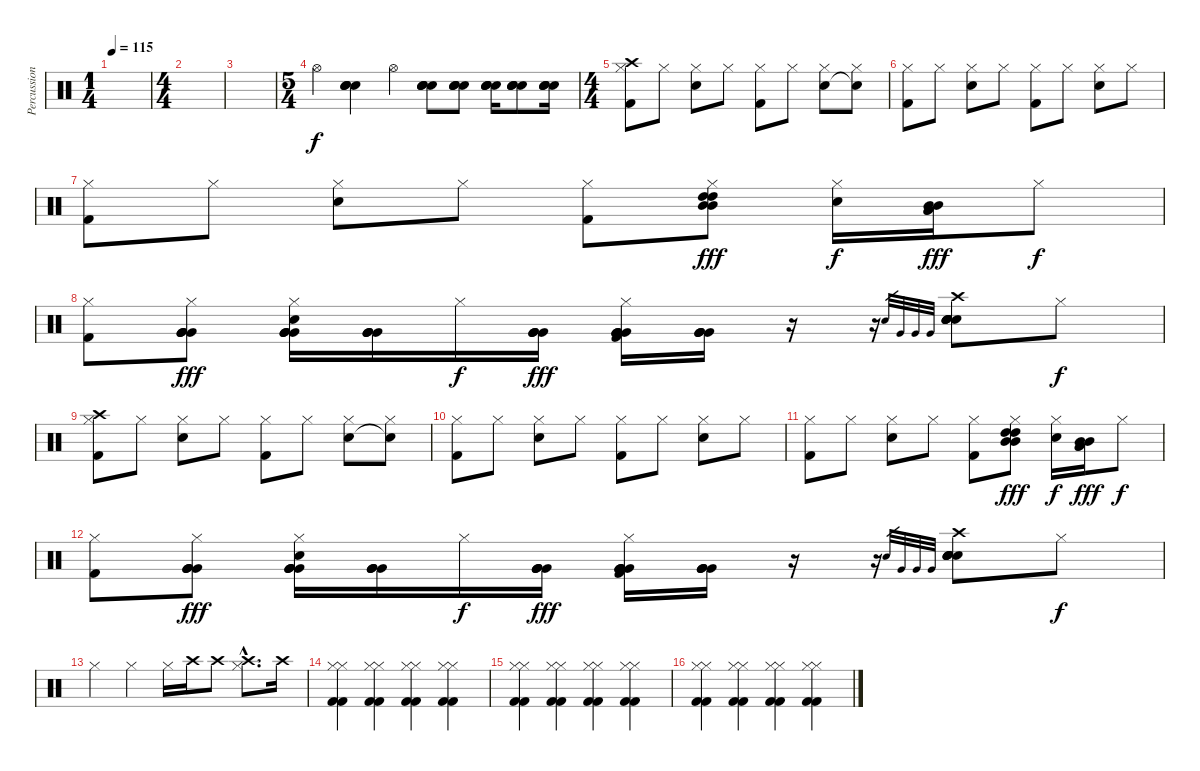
\track ("Percussion" "Percussion") {instrument percussion}
\staff {score}
\articulation defaults
\ts (1 4)
\tempo 115
\clef neutral
\ks c
|
\ts (4 4)
|
|
\ts (5 4)
"Hi-Hat (open)".4 ("Snare (hit) 2" "Snare (hit) 2" "Snare (hit) 2" "Snare (hit) 2").4 "Hi-Hat (open)".4 ("Snare (hit) 2" "Snare (hit) 2" "Snare (hit) 2" "Snare (hit) 2").8 ("Snare (hit) 2" "Snare (hit) 2" "Snare (hit) 2" "Snare (hit) 2").8 ("Snare (hit) 2" "Snare (hit) 2" "Snare (hit) 2" "Snare (hit) 2").16 ("Snare (hit) 2" "Snare (hit) 2" "Snare (hit) 2" "Snare (hit) 2").8 ("Snare (hit) 2" "Snare (hit) 2" "Snare (hit) 2" "Snare (hit) 2").16 |
\ts (4 4)
("Hi-Hat (closed)" "Kick (hit) 2" "Crash high (hit)").8 "Hi-Hat (closed)".8 ("Hi-Hat (closed)" "Electric Snare (hit)").8 "Hi-Hat (closed)".8 ("Hi-Hat (closed)" "Kick (hit) 2").8 "Hi-Hat (closed)".8 ("Hi-Hat (closed)" "Electric Snare (hit)").8 ("Hi-Hat (closed)" "Snare (hit)"{t}).8 |
("Hi-Hat (closed)" "Kick (hit) 2").8 "Hi-Hat (closed)".8 ("Hi-Hat (closed)" "Electric Snare (hit)").8 "Hi-Hat (closed)".8 ("Hi-Hat (closed)" "Kick (hit) 2").8 "Hi-Hat (closed)".8 ("Hi-Hat (closed)" "Electric Snare (hit)").8 "Hi-Hat (closed)".8 |
("Hi-Hat (closed)" "Kick (hit) 2").8 "Hi-Hat (closed)".8 ("Hi-Hat (closed)" "Electric Snare (hit)").8 "Hi-Hat (closed)".8 ("Hi-Hat (closed)" "Kick (hit) 2").8 ("Hi-Hat (closed)" "High Tom (hit)" "High Tom (hit)" "Mid Tom (hit)" "Mid Tom (hit)").8{dy fff} ("Hi-Hat (closed)" "Electric Snare (hit)").16{dy f} ("Mid Tom (hit)" "Mid Tom (hit)" "Low Tom (hit)" "Low Tom (hit)").16{dy fff} "Hi-Hat (closed)".8{dy f} |
("Hi-Hat (closed)" "Kick (hit) 2").8 ("Hi-Hat (closed)" "Very Low Tom (hit)" "Very Low Tom (hit)" "Very Low Tom (hit)" "Very Low Tom (hit)").8{dy fff} ("Hi-Hat (closed)" "Electric Snare (hit)" "Very Low Tom (hit)" "Very Low Tom (hit)" "Very Low Tom (hit)" "Very Low Tom (hit)").16 ("Very Low Tom (hit)" "Very Low Tom (hit)" "Very Low Tom (hit)" "Very Low Tom (hit)").16 "Hi-Hat (closed)".16{dy f} ("Very Low Tom (hit)" "Very Low Tom (hit)" "Very Low Tom (hit)" "Very Low Tom (hit)").16{dy fff} ("Hi-Hat (closed)" "Kick (hit) 2" "Very Low Tom (hit)" "Very Low Tom (hit)" "Very Low Tom (hit)" "Very Low Tom (hit)").16 ("Very Low Tom (hit)" "Very Low Tom (hit)" "Very Low Tom (hit)" "Very Low Tom (hit)").16 r.16 r.16 "Snare (hit)".32{gr} "Very Low Tom (hit)".32{gr} "Very Low Tom (hit)".32{gr} "Very Low Tom (hit)".32{gr} ("Crash high (hit)" "Electric Snare (hit)" "Electric Snare (hit)" "Electric Snare (hit)" "Electric Snare (hit)" "Electric Snare (hit)").8 "Hi-Hat (closed)".8{dy f} |
("Hi-Hat (closed)" "Kick (hit) 2" "Crash high (hit)").8 "Hi-Hat (closed)".8 ("Hi-Hat (closed)" "Electric Snare (hit)").8 "Hi-Hat (closed)".8 ("Hi-Hat (closed)" "Kick (hit) 2").8 "Hi-Hat (closed)".8 ("Hi-Hat (closed)" "Electric Snare (hit)").8 ("Hi-Hat (closed)" "Snare (hit)"{t}).8 |
("Hi-Hat (closed)" "Kick (hit) 2").8 "Hi-Hat (closed)".8 ("Hi-Hat (closed)" "Electric Snare (hit)").8 "Hi-Hat (closed)".8 ("Hi-Hat (closed)" "Kick (hit) 2").8 "Hi-Hat (closed)".8 ("Hi-Hat (closed)" "Electric Snare (hit)").8 "Hi-Hat (closed)".8 |
("Hi-Hat (closed)" "Kick (hit) 2").8 "Hi-Hat (closed)".8 ("Hi-Hat (closed)" "Electric Snare (hit)").8 "Hi-Hat (closed)".8 ("Hi-Hat (closed)" "Kick (hit) 2").8 ("Hi-Hat (closed)" "High Tom (hit)" "High Tom (hit)" "Mid Tom (hit)" "Mid Tom (hit)").8{dy fff} ("Hi-Hat (closed)" "Electric Snare (hit)").16{dy f} ("Mid Tom (hit)" "Mid Tom (hit)" "Low Tom (hit)" "Low Tom (hit)").16{dy fff} "Hi-Hat (closed)".8{dy f} |
("Hi-Hat (closed)" "Kick (hit) 2").8 ("Hi-Hat (closed)" "Very Low Tom (hit)" "Very Low Tom (hit)" "Very Low Tom (hit)" "Very Low Tom (hit)").8{dy fff} ("Hi-Hat (closed)" "Electric Snare (hit)" "Very Low Tom (hit)" "Very Low Tom (hit)" "Very Low Tom (hit)" "Very Low Tom (hit)").16 ("Very Low Tom (hit)" "Very Low Tom (hit)" "Very Low Tom (hit)" "Very Low Tom (hit)").16 "Hi-Hat (closed)".16{dy f} ("Very Low Tom (hit)" "Very Low Tom (hit)" "Very Low Tom (hit)" "Very Low Tom (hit)").16{dy fff} ("Hi-Hat (closed)" "Kick (hit) 2" "Very Low Tom (hit)" "Very Low Tom (hit)" "Very Low Tom (hit)" "Very Low Tom (hit)").16 ("Very Low Tom (hit)" "Very Low Tom (hit)" "Very Low Tom (hit)" "Very Low Tom (hit)").16 r.16 r.16 "Snare (hit)".32{gr} "Very Low Tom (hit)".32{gr} "Very Low Tom (hit)".32{gr} "Very Low Tom (hit)".32{gr} ("Crash high (hit)" "Electric Snare (hit)" "Electric Snare (hit)" "Electric Snare (hit)" "Electric Snare (hit)" "Electric Snare (hit)").8 "Hi-Hat (closed)".8{dy f} |
"Hi-Hat (closed)".4 "Hi-Hat (closed)".4 "Hi-Hat (closed)".16 "Crash high (hit)".16 "Crash high (hit)".8 ("Hi-Hat (closed)"{hac} "Crash high (hit)"{hac}).8{d} "Crash high (hit)".16 |
("Kick (hit) 2" "Kick (hit) 2" "Hi-Hat (closed)" "Hi-Hat (closed)").4 ("Kick (hit) 2" "Kick (hit) 2" "Hi-Hat (closed)" "Hi-Hat (closed)").4 ("Kick (hit) 2" "Kick (hit) 2" "Hi-Hat (closed)" "Hi-Hat (closed)").4 ("Kick (hit) 2" "Kick (hit) 2" "Hi-Hat (closed)" "Hi-Hat (closed)").4 |
("Kick (hit) 2" "Kick (hit) 2" "Hi-Hat (closed)" "Hi-Hat (closed)").4 ("Kick (hit) 2" "Kick (hit) 2" "Hi-Hat (closed)" "Hi-Hat (closed)").4 ("Kick (hit) 2" "Kick (hit) 2" "Hi-Hat (closed)" "Hi-Hat (closed)").4 ("Kick (hit) 2" "Kick (hit) 2" "Hi-Hat (closed)" "Hi-Hat (closed)").4 |
("Kick (hit) 2" "Kick (hit) 2" "Hi-Hat (closed)" "Hi-Hat (closed)").4 ("Kick (hit) 2" "Kick (hit) 2" "Hi-Hat (closed)" "Hi-Hat (closed)").4 ("Kick (hit) 2" "Kick (hit) 2" "Hi-Hat (closed)" "Hi-Hat (closed)").4 ("Kick (hit) 2" "Kick (hit) 2" "Hi-Hat (closed)" "Hi-Hat (closed)").4
